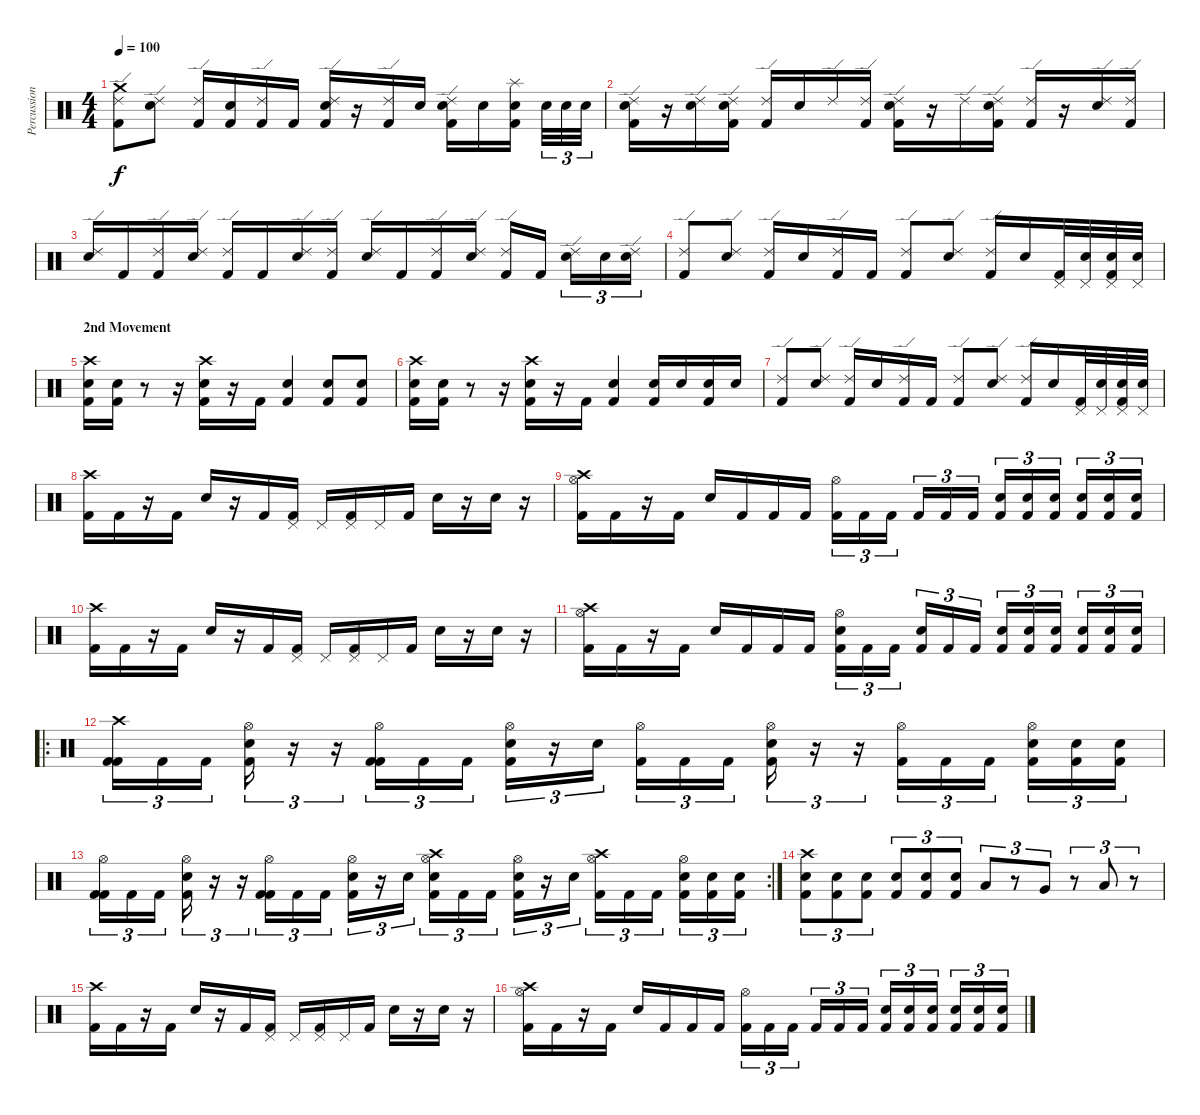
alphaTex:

\track ("Percussion" "Percussion") {instrument percussion}
\staff {score}
\articulation defaults
\ts (4 4)
\tempo 100
\clef neutral
\ks c
("Crash medium (hit)" "Ride (edge) 2" "Kick (hit) 2").8{dy f} ("Ride (edge) 2" "Electric Snare (hit)").8 ("Ride (edge) 2" "Kick (hit) 2").16 ("Electric Snare (hit)" "Kick (hit) 2").16 ("Ride (edge) 2" "Kick (hit) 2").16 "Kick (hit) 2".16 ("Ride (edge) 2" "Electric Snare (hit)" "Kick (hit) 2").16 r.16 ("Ride (edge) 2" "Kick (hit) 2").16 "Electric Snare (hit)".16 ("Ride (edge) 2" "Electric Snare (hit)" "Kick (hit) 2").16 "Electric Snare (hit)".16 ("Splash (hit)" "Electric Snare (hit)" "Kick (hit) 2").16 "Electric Snare (hit)".32{tu (3 2)} "Electric Snare (hit)".32{tu (3 2)} "Electric Snare (hit)".32{tu (3 2)} |
("Ride (edge) 2" "Electric Snare (hit)" "Kick (hit) 2").16 r.16 ("Ride (edge) 2" "Electric Snare (hit)").16 ("Ride (edge) 2" "Electric Snare (hit)" "Kick (hit) 2").16 ("Ride (edge) 2" "Kick (hit) 2").16 "Electric Snare (hit)".16 "Ride (edge) 2".16 ("Ride (edge) 2" "Kick (hit) 2").16 ("Ride (edge) 2" "Electric Snare (hit)" "Kick (hit) 2").16 r.16 "Ride (edge) 2".16 ("Ride (edge) 2" "Electric Snare (hit)" "Kick (hit) 2").16 ("Ride (edge) 2" "Kick (hit) 2").16 r.16 ("Ride (edge) 2" "Electric Snare (hit)").16 ("Ride (edge) 2" "Kick (hit) 2").16 |
("Ride (edge) 2" "Electric Snare (hit)").16 "Kick (hit) 2".16 ("Ride (edge) 2" "Kick (hit) 2").16 ("Ride (edge) 2" "Electric Snare (hit)").16 ("Ride (edge) 2" "Kick (hit) 2").16 "Kick (hit) 2".16 ("Ride (edge) 2" "Electric Snare (hit)").16 ("Ride (edge) 2" "Kick (hit) 2").16 ("Ride (edge) 2" "Electric Snare (hit)").16 "Kick (hit) 2".16 ("Ride (edge) 2" "Kick (hit) 2").16 ("Ride (edge) 2" "Electric Snare (hit)").16 ("Ride (edge) 2" "Kick (hit) 2").16 "Kick (hit) 2".16 ("Ride (edge) 2" "Electric Snare (hit)").16{tu (3 2)} "Electric Snare (hit)".16{tu (3 2)} ("Ride (edge) 2" "Electric Snare (hit)").16{tu (3 2)} |
("Ride (edge) 2" "Kick (hit) 2").8 ("Ride (edge) 2" "Electric Snare (hit)").8 ("Ride (edge) 2" "Kick (hit) 2").16 "Electric Snare (hit)".16 ("Ride (edge) 2" "Kick (hit) 2").16 "Kick (hit) 2".16 ("Ride (edge) 2" "Kick (hit) 2").8 ("Ride (edge) 2" "Electric Snare (hit)").8 ("Ride (edge) 2" "Kick (hit) 2").16 "Electric Snare (hit)".16 ("Pedal Hi-Hat (hit)" "Kick (hit) 2").32 ("Pedal Hi-Hat (hit)" "Electric Snare (hit)").32 ("Pedal Hi-Hat (hit)" "Electric Snare (hit)" "Kick (hit) 2").32 ("Pedal Hi-Hat (hit)" "Electric Snare (hit)").32 |
\section ("" "2nd Movement")
("Crash high (hit)" "Electric Snare (hit)" "Kick (hit) 2").16 ("Electric Snare (hit)" "Kick (hit) 2").16 r.8 r.16 ("Crash high (hit)" "Electric Snare (hit)" "Kick (hit) 2").16 r.16 "Kick (hit) 2".16 ("Electric Snare (hit)" "Kick (hit) 2").4 ("Electric Snare (hit)" "Kick (hit) 2").8 ("Electric Snare (hit)" "Kick (hit) 2").8 |
("Crash high (hit)" "Electric Snare (hit)" "Kick (hit) 2").16 ("Electric Snare (hit)" "Kick (hit) 2").16 r.8 r.16 ("Crash high (hit)" "Electric Snare (hit)" "Kick (hit) 2").16 r.16 "Kick (hit) 2".16 ("Electric Snare (hit)" "Kick (hit) 2").4 ("Electric Snare (hit)" "Kick (hit) 2").16 "Electric Snare (hit)".16 ("Electric Snare (hit)" "Kick (hit) 2").16 "Electric Snare (hit)".16 |
("Ride (edge) 2" "Kick (hit) 2").8 ("Ride (edge) 2" "Electric Snare (hit)").8 ("Ride (edge) 2" "Kick (hit) 2").16 "Electric Snare (hit)".16 ("Ride (edge) 2" "Kick (hit) 2").16 "Kick (hit) 2".16 ("Ride (edge) 2" "Kick (hit) 2").8 ("Ride (edge) 2" "Electric Snare (hit)").8 ("Ride (edge) 2" "Kick (hit) 2").16 "Electric Snare (hit)".16 ("Pedal Hi-Hat (hit)" "Kick (hit) 2").32 ("Pedal Hi-Hat (hit)" "Electric Snare (hit)").32 ("Pedal Hi-Hat (hit)" "Electric Snare (hit)" "Kick (hit) 2").32 ("Pedal Hi-Hat (hit)" "Electric Snare (hit)").32 |
("Crash high (hit)" "Kick (hit) 2").16 "Kick (hit) 2".16 r.16 "Kick (hit) 2".16 "Electric Snare (hit)".16 r.16 "Kick (hit) 2".16 ("Pedal Hi-Hat (hit)" "Kick (hit) 2").16 "Pedal Hi-Hat (hit)".16 ("Pedal Hi-Hat (hit)" "Kick (hit) 2").16 "Pedal Hi-Hat (hit)".16 "Kick (hit) 2".16 "Electric Snare (hit)".16 r.16 "Electric Snare (hit)".16 r.16 |
("Crash high (hit)" "Hi-Hat (open)" "Kick (hit) 2").16 "Kick (hit) 2".16 r.16 "Kick (hit) 2".16 "Electric Snare (hit)".16 "Kick (hit) 2".16 "Kick (hit) 2".16 "Kick (hit) 2".16 ("Hi-Hat (open)" "Kick (hit) 2").16{tu (3 2)} "Kick (hit) 2".16{tu (3 2)} "Kick (hit) 2".16{tu (3 2)} "Kick (hit) 2".16{tu (3 2)} "Kick (hit) 2".16{tu (3 2)} "Kick (hit) 2".16{tu (3 2)} ("Electric Snare (hit)" "Kick (hit) 2").16{tu (3 2)} ("Electric Snare (hit)" "Kick (hit) 2").16{tu (3 2)} ("Electric Snare (hit)" "Kick (hit) 2").16{tu (3 2)} ("Electric Snare (hit)" "Kick (hit) 2").16{tu (3 2)} ("Electric Snare (hit)" "Kick (hit) 2").16{tu (3 2)} ("Electric Snare (hit)" "Kick (hit) 2").16{tu (3 2)} |
("Crash high (hit)" "Kick (hit) 2").16 "Kick (hit) 2".16 r.16 "Kick (hit) 2".16 "Electric Snare (hit)".16 r.16 "Kick (hit) 2".16 ("Pedal Hi-Hat (hit)" "Kick (hit) 2").16 "Pedal Hi-Hat (hit)".16 ("Pedal Hi-Hat (hit)" "Kick (hit) 2").16 "Pedal Hi-Hat (hit)".16 "Kick (hit) 2".16 "Electric Snare (hit)".16 r.16 "Electric Snare (hit)".16 r.16 |
("Crash high (hit)" "Hi-Hat (open)" "Kick (hit) 2").16 "Kick (hit) 2".16 r.16 "Kick (hit) 2".16 "Electric Snare (hit)".16 "Kick (hit) 2".16 "Kick (hit) 2".16 "Kick (hit) 2".16 ("Hi-Hat (open)" "Electric Snare (hit)" "Kick (hit) 2").16{tu (3 2)} "Kick (hit) 2".16{tu (3 2)} "Kick (hit) 2".16{tu (3 2)} ("Electric Snare (hit)" "Kick (hit) 2").16{tu (3 2)} "Kick (hit) 2".16{tu (3 2)} "Kick (hit) 2".16{tu (3 2)} ("Electric Snare (hit)" "Kick (hit) 2").16{tu (3 2)} ("Electric Snare (hit)" "Kick (hit) 2").16{tu (3 2)} ("Electric Snare (hit)" "Kick (hit) 2").16{tu (3 2)} ("Electric Snare (hit)" "Kick (hit) 2").16{tu (3 2)} ("Electric Snare (hit)" "Kick (hit) 2").16{tu (3 2)} ("Electric Snare (hit)" "Kick (hit) 2").16{tu (3 2)} |
\ro
("Crash high (hit)" "Kick (hit) 2" "Kick (hit) 2").16{tu (3 2)} "Kick (hit) 2".16{tu (3 2)} "Kick (hit) 2".16{tu (3 2)} ("Hi-Hat (open)" "Electric Snare (hit)" "Kick (hit) 2").16{tu (3 2)} r.16{tu (3 2)} r.16{tu (3 2)} ("Hi-Hat (open)" "Kick (hit) 2" "Kick (hit) 2").16{tu (3 2)} "Kick (hit) 2".16{tu (3 2)} "Kick (hit) 2".16{tu (3 2)} ("Hi-Hat (open)" "Electric Snare (hit)" "Kick (hit) 2").16{tu (3 2)} r.16{tu (3 2)} "Electric Snare (hit)".16{tu (3 2)} ("Hi-Hat (open)" "Kick (hit) 2").16{tu (3 2)} "Kick (hit) 2".16{tu (3 2)} "Kick (hit) 2".16{tu (3 2)} ("Hi-Hat (open)" "Electric Snare (hit)" "Kick (hit) 2").16{tu (3 2)} r.16{tu (3 2)} r.16{tu (3 2)} ("Hi-Hat (open)" "Kick (hit) 2").16{tu (3 2)} "Kick (hit) 2".16{tu (3 2)} "Kick (hit) 2".16{tu (3 2)} ("Hi-Hat (open)" "Electric Snare (hit)" "Kick (hit) 2").16{tu (3 2)} ("Electric Snare (hit)" "Kick (hit) 2").16{tu (3 2)} ("Electric Snare (hit)" "Kick (hit) 2").16{tu (3 2)} |
\rc 2
("Hi-Hat (open)" "Kick (hit) 2" "Kick (hit) 2").16{tu (3 2)} "Kick (hit) 2".16{tu (3 2)} "Kick (hit) 2".16{tu (3 2)} ("Hi-Hat (open)" "Electric Snare (hit)" "Kick (hit) 2").16{tu (3 2)} r.16{tu (3 2)} r.16{tu (3 2)} ("Hi-Hat (open)" "Kick (hit) 2" "Kick (hit) 2").16{tu (3 2)} "Kick (hit) 2".16{tu (3 2)} "Kick (hit) 2".16{tu (3 2)} ("Hi-Hat (open)" "Electric Snare (hit)" "Kick (hit) 2").16{tu (3 2)} r.16{tu (3 2)} "Electric Snare (hit)".16{tu (3 2)} ("Crash high (hit)" "Hi-Hat (open)" "Electric Snare (hit)" "Kick (hit) 2").16{tu (3 2)} "Kick (hit) 2".16{tu (3 2)} "Kick (hit) 2".16{tu (3 2)} ("Hi-Hat (open)" "Electric Snare (hit)" "Kick (hit) 2").16{tu (3 2)} r.16{tu (3 2)} "Electric Snare (hit)".16{tu (3 2)} ("Crash high (hit)" "Hi-Hat (open)" "Kick (hit) 2").16{tu (3 2)} "Kick (hit) 2".16{tu (3 2)} "Kick (hit) 2".16{tu (3 2)} ("Hi-Hat (open)" "Electric Snare (hit)" "Kick (hit) 2").16{tu (3 2)} ("Electric Snare (hit)" "Kick (hit) 2").16{tu (3 2)} ("Electric Snare (hit)" "Kick (hit) 2").16{tu (3 2)} |
("Crash high (hit)" "Electric Snare (hit)" "Kick (hit) 2").8{tu (3 2)} ("Electric Snare (hit)" "Kick (hit) 2").8{tu (3 2)} ("Electric Snare (hit)" "Kick (hit) 2").8{tu (3 2)} ("Electric Snare (hit)" "Kick (hit) 2").8{tu (3 2)} ("Electric Snare (hit)" "Kick (hit) 2").8{tu (3 2)} ("Electric Snare (hit)" "Kick (hit) 2").8{tu (3 2)} "Low Tom (hit)".8{tu (3 2)} r.8{tu (3 2)} "Very Low Tom (hit)".8{tu (3 2)} r.8{tu (3 2)} "Low Floor Tom (hit)".8{tu (3 2)} r.8{tu (3 2)} |
("Crash high (hit)" "Kick (hit) 2").16 "Kick (hit) 2".16 r.16 "Kick (hit) 2".16 "Electric Snare (hit)".16 r.16 "Kick (hit) 2".16 ("Pedal Hi-Hat (hit)" "Kick (hit) 2").16 "Pedal Hi-Hat (hit)".16 ("Pedal Hi-Hat (hit)" "Kick (hit) 2").16 "Pedal Hi-Hat (hit)".16 "Kick (hit) 2".16 "Electric Snare (hit)".16 r.16 "Electric Snare (hit)".16 r.16 |
("Crash high (hit)" "Hi-Hat (open)" "Kick (hit) 2").16 "Kick (hit) 2".16 r.16 "Kick (hit) 2".16 "Electric Snare (hit)".16 "Kick (hit) 2".16 "Kick (hit) 2".16 "Kick (hit) 2".16 ("Hi-Hat (open)" "Kick (hit) 2").16{tu (3 2)} "Kick (hit) 2".16{tu (3 2)} "Kick (hit) 2".16{tu (3 2)} "Kick (hit) 2".16{tu (3 2)} "Kick (hit) 2".16{tu (3 2)} "Kick (hit) 2".16{tu (3 2)} ("Electric Snare (hit)" "Kick (hit) 2").16{tu (3 2)} ("Electric Snare (hit)" "Kick (hit) 2").16{tu (3 2)} ("Electric Snare (hit)" "Kick (hit) 2").16{tu (3 2)} ("Electric Snare (hit)" "Kick (hit) 2").16{tu (3 2)} ("Electric Snare (hit)" "Kick (hit) 2").16{tu (3 2)} ("Electric Snare (hit)" "Kick (hit) 2").16{tu (3 2)}
